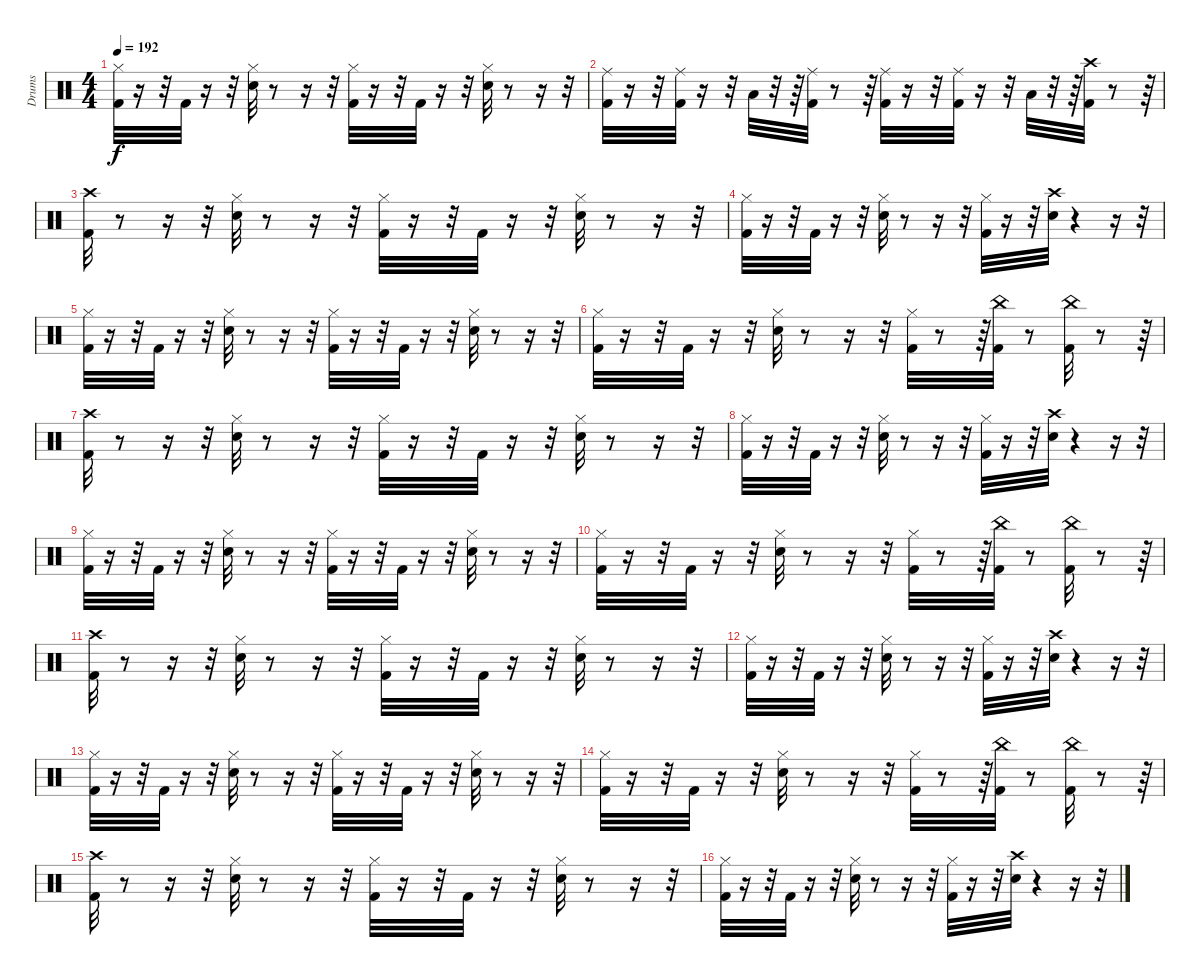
\track ("Drums" "Drums") {instrument percussion}
\staff {score}
\articulation defaults
\ts (4 4)
\tempo 192
\clef neutral
\ks c
("Kick (hit) 2" "Hi-Hat (closed)").32{dy f} r.16 r.32 "Kick (hit) 2".32 r.16 r.32 ("Snare (hit) 2" "Hi-Hat (closed)").32 r.8 r.16 r.32 ("Kick (hit) 2" "Hi-Hat (closed)").32 r.16 r.32 "Kick (hit) 2".32 r.16 r.32 ("Snare (hit) 2" "Hi-Hat (closed)").32 r.8 r.16 r.32 |
("Kick (hit) 2" "Ride (middle)").32 r.16 r.32 ("Kick (hit) 2" "Ride (middle)").32 r.16 r.32 "Low Tom (hit)".32 r.32 r.64 ("Ride (middle)" "Kick (hit) 2").32 r.8 r.64 ("Ride (middle)" "Kick (hit) 2").32 r.16 r.32 ("Ride (middle)" "Kick (hit) 2").32 r.16 r.32 "Low Tom (hit)".32 r.32 r.64 ("Crash high (hit)" "Kick (hit) 2").32 r.8 r.64 |
("Kick (hit) 2" "Crash high (hit)").32 r.8 r.16 r.32 ("Hi-Hat (closed)" "Snare (hit) 2").32 r.8 r.16 r.32 ("Hi-Hat (closed)" "Kick (hit) 2").32 r.16 r.32 "Kick (hit) 2".32 r.16 r.32 ("Hi-Hat (closed)" "Snare (hit) 2").32 r.8 r.16 r.32 |
("Kick (hit) 2" "Hi-Hat (closed)").32 r.16 r.32 "Kick (hit) 2".32 r.16 r.32 ("Snare (hit) 2" "Hi-Hat (closed)").32 r.8 r.16 r.32 ("Hi-Hat (closed)" "Kick (hit) 2").32 r.16 r.32 ("Crash high (hit)" "Snare (hit) 2").32 r.4 r.16 r.32 |
("Hi-Hat (closed)" "Kick (hit) 2").32 r.16 r.32 "Kick (hit) 2".32 r.16 r.32 ("Snare (hit) 2" "Hi-Hat (closed)").32 r.8 r.16 r.32 ("Hi-Hat (closed)" "Kick (hit) 2").32 r.16 r.32 "Kick (hit) 2".32 r.16 r.32 ("Snare (hit) 2" "Hi-Hat (closed)").32 r.8 r.16 r.32 |
("Kick (hit) 2" "Hi-Hat (closed)").32 r.16 r.32 "Kick (hit) 2".32 r.16 r.32 ("Snare (hit) 2" "Hi-Hat (closed)").32 r.8 r.16 r.32 ("Hi-Hat (closed)" "Kick (hit) 2").32 r.8 r.64 ("China (hit)" "Kick (hit) 2").32 r.8 ("China (hit)" "Kick (hit) 2").32 r.8 r.64 |
("Kick (hit) 2" "Crash high (hit)").32 r.8 r.16 r.32 ("Hi-Hat (closed)" "Snare (hit) 2").32 r.8 r.16 r.32 ("Hi-Hat (closed)" "Kick (hit) 2").32 r.16 r.32 "Kick (hit) 2".32 r.16 r.32 ("Snare (hit) 2" "Hi-Hat (closed)").32 r.8 r.16 r.32 |
("Hi-Hat (closed)" "Kick (hit) 2").32 r.16 r.32 "Kick (hit) 2".32 r.16 r.32 ("Snare (hit) 2" "Hi-Hat (closed)").32 r.8 r.16 r.32 ("Hi-Hat (closed)" "Kick (hit) 2").32 r.16 r.32 ("Snare (hit) 2" "Crash high (hit)").32 r.4 r.16 r.32 |
("Hi-Hat (closed)" "Kick (hit) 2").32 r.16 r.32 "Kick (hit) 2".32 r.16 r.32 ("Snare (hit) 2" "Hi-Hat (closed)").32 r.8 r.16 r.32 ("Hi-Hat (closed)" "Kick (hit) 2").32 r.16 r.32 "Kick (hit) 2".32 r.16 r.32 ("Snare (hit) 2" "Hi-Hat (closed)").32 r.8 r.16 r.32 |
("Kick (hit) 2" "Hi-Hat (closed)").32 r.16 r.32 "Kick (hit) 2".32 r.16 r.32 ("Snare (hit) 2" "Hi-Hat (closed)").32 r.8 r.16 r.32 ("Kick (hit) 2" "Hi-Hat (closed)").32 r.8 r.64 ("China (hit)" "Kick (hit) 2").32 r.8 ("China (hit)" "Kick (hit) 2").32 r.8 r.64 |
("Kick (hit) 2" "Crash high (hit)").32 r.8 r.16 r.32 ("Hi-Hat (closed)" "Snare (hit) 2").32 r.8 r.16 r.32 ("Hi-Hat (closed)" "Kick (hit) 2").32 r.16 r.32 "Kick (hit) 2".32 r.16 r.32 ("Hi-Hat (closed)" "Snare (hit) 2").32 r.8 r.16 r.32 |
("Hi-Hat (closed)" "Kick (hit) 2").32 r.16 r.32 "Kick (hit) 2".32 r.16 r.32 ("Snare (hit) 2" "Hi-Hat (closed)").32 r.8 r.16 r.32 ("Hi-Hat (closed)" "Kick (hit) 2").32 r.16 r.32 ("Snare (hit) 2" "Crash high (hit)").32 r.4 r.16 r.32 |
("Kick (hit) 2" "Hi-Hat (closed)").32 r.16 r.32 "Kick (hit) 2".32 r.16 r.32 ("Snare (hit) 2" "Hi-Hat (closed)").32 r.8 r.16 r.32 ("Kick (hit) 2" "Hi-Hat (closed)").32 r.16 r.32 "Kick (hit) 2".32 r.16 r.32 ("Snare (hit) 2" "Hi-Hat (closed)").32 r.8 r.16 r.32 |
("Kick (hit) 2" "Hi-Hat (closed)").32 r.16 r.32 "Kick (hit) 2".32 r.16 r.32 ("Snare (hit) 2" "Hi-Hat (closed)").32 r.8 r.16 r.32 ("Kick (hit) 2" "Hi-Hat (closed)").32 r.8 r.64 ("China (hit)" "Kick (hit) 2").32 r.8 ("China (hit)" "Kick (hit) 2").32 r.8 r.64 |
("Kick (hit) 2" "Crash high (hit)").32 r.8 r.16 r.32 ("Hi-Hat (closed)" "Snare (hit) 2").32 r.8 r.16 r.32 ("Kick (hit) 2" "Hi-Hat (closed)").32 r.16 r.32 "Kick (hit) 2".32 r.16 r.32 ("Hi-Hat (closed)" "Snare (hit) 2").32 r.8 r.16 r.32 |
("Hi-Hat (closed)" "Kick (hit) 2").32 r.16 r.32 "Kick (hit) 2".32 r.16 r.32 ("Snare (hit) 2" "Hi-Hat (closed)").32 r.8 r.16 r.32 ("Hi-Hat (closed)" "Kick (hit) 2").32 r.16 r.32 ("Crash high (hit)" "Snare (hit) 2").32 r.4 r.16 r.32
